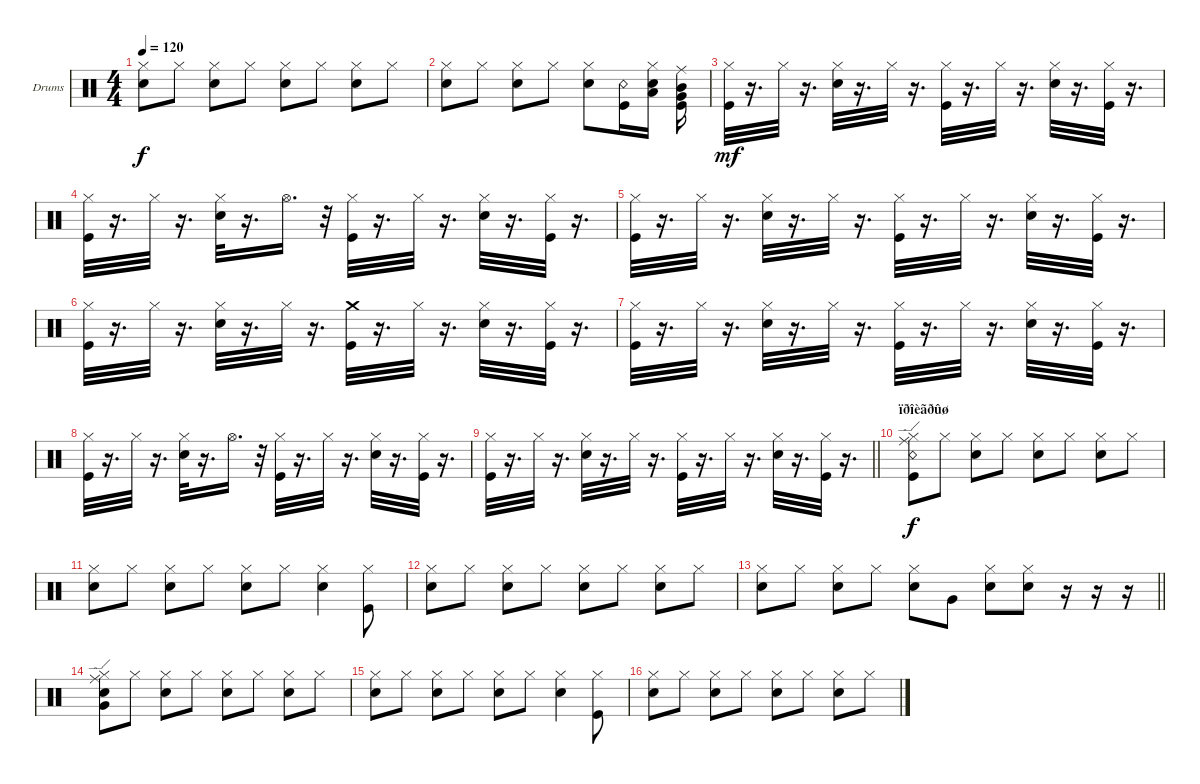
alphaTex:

\bracketExtendMode groupsimilarinstruments
\firstSystemTrackNameOrientation horizontal
\otherSystemsTrackNameOrientation horizontal
\track ("Drumkit" "Drums") {instrument percussion}
\staff {score}
\articulation defaults
\ts (4 4)
\tempo 120
\clef neutral
\ks c
("Hi-Hat (closed)" "Snare (hit) 2").8{dy f} "Hi-Hat (closed)".8 ("Hi-Hat (closed)" "Snare (hit) 2").8 "Hi-Hat (closed)".8 ("Hi-Hat (closed)" "Snare (hit) 2").8 "Hi-Hat (closed)".8 ("Hi-Hat (closed)" "Snare (hit) 2").8 "Hi-Hat (closed)".8 |
("Hi-Hat (closed)" "Snare (hit) 2").8 "Hi-Hat (closed)".8 ("Hi-Hat (closed)" "Snare (hit) 2").8 "Hi-Hat (closed)".8 ("Hi-Hat (closed)" "Snare (hit) 2").8 ("Snare (rim shot)" "Kick (hit)").16 ("Hi-Hat (closed)" "Snare (hit) 2" "Low Tom (hit)").16 ("Very Low Tom (hit)" "Kick (hit)" "Mid Tom (hit)" "Ride (middle)").16 |
("Hi-Hat (closed)" "Kick (hit)").32{dy mf} r.16{d} "Hi-Hat (closed)".32 r.16{d} ("Hi-Hat (closed)" "Snare (hit) 2").32 r.16{d} "Hi-Hat (closed)".32 r.16{d} ("Hi-Hat (closed)" "Kick (hit)").32 r.16{d} "Hi-Hat (closed)".32 r.16{d} ("Hi-Hat (closed)" "Snare (hit) 2").32 r.16{d} ("Hi-Hat (closed)" "Kick (hit)").32 r.16{d} |
("Hi-Hat (closed)" "Kick (hit)").32 r.16{d} "Hi-Hat (closed)".32 r.16{d} ("Hi-Hat (closed)" "Snare (hit) 2").32 r.16{d} "Hi-Hat (open)".16{d} r.32 ("Hi-Hat (closed)" "Kick (hit)").32 r.16{d} "Hi-Hat (closed)".32 r.16{d} ("Hi-Hat (closed)" "Snare (hit) 2").32 r.16{d} ("Hi-Hat (closed)" "Kick (hit)").32 r.16{d} |
("Hi-Hat (closed)" "Kick (hit)").32 r.16{d} "Hi-Hat (closed)".32 r.16{d} ("Hi-Hat (closed)" "Snare (hit) 2").32 r.16{d} "Hi-Hat (closed)".32 r.16{d} ("Hi-Hat (closed)" "Kick (hit)").32 r.16{d} "Hi-Hat (closed)".32 r.16{d} ("Hi-Hat (closed)" "Snare (hit) 2").32 r.16{d} ("Hi-Hat (closed)" "Kick (hit)").32 r.16{d} |
("Hi-Hat (closed)" "Kick (hit)").32 r.16{d} "Hi-Hat (closed)".32 r.16{d} ("Hi-Hat (closed)" "Snare (hit) 2").32 r.16{d} "Hi-Hat (closed)".32 r.16{d} ("Crash medium (hit)" "Kick (hit)").32 r.16{d} "Hi-Hat (closed)".32 r.16{d} ("Hi-Hat (closed)" "Snare (hit) 2").32 r.16{d} ("Hi-Hat (closed)" "Kick (hit)").32 r.16{d} |
("Hi-Hat (closed)" "Kick (hit)").32 r.16{d} "Hi-Hat (closed)".32 r.16{d} ("Hi-Hat (closed)" "Snare (hit) 2").32 r.16{d} "Hi-Hat (closed)".32 r.16{d} ("Hi-Hat (closed)" "Kick (hit)").32 r.16{d} "Hi-Hat (closed)".32 r.16{d} ("Hi-Hat (closed)" "Snare (hit) 2").32 r.16{d} ("Hi-Hat (closed)" "Kick (hit)").32 r.16{d} |
("Hi-Hat (closed)" "Kick (hit)").32 r.16{d} "Hi-Hat (closed)".32 r.16{d} ("Hi-Hat (closed)" "Snare (hit) 2").32 r.16{d} "Hi-Hat (open)".16{d} r.32 ("Hi-Hat (closed)" "Kick (hit)").32 r.16{d} "Hi-Hat (closed)".32 r.16{d} ("Hi-Hat (closed)" "Snare (hit) 2").32 r.16{d} ("Hi-Hat (closed)" "Kick (hit)").32 r.16{d} |
\barLineRight lightlight
("Hi-Hat (closed)" "Kick (hit)").32 r.16{d} "Hi-Hat (closed)".32 r.16{d} ("Hi-Hat (closed)" "Snare (hit) 2").32 r.16{d} "Hi-Hat (closed)".32 r.16{d} ("Hi-Hat (closed)" "Kick (hit)").32 r.16{d} "Hi-Hat (closed)".32 r.16{d} ("Hi-Hat (closed)" "Snare (hit) 2").32 r.16{d} ("Hi-Hat (closed)" "Kick (hit)").32 r.16{d} |
\section ("" "ïðîèãðûø")
("Hi-Hat (closed)" "Ride (edge)" "Snare (rim shot)" "Kick (hit)").8{dy f} "Hi-Hat (closed)".8 ("Snare (hit) 2" "Hi-Hat (closed)").8 "Hi-Hat (closed)".8 ("Hi-Hat (closed)" "Snare (hit) 2").8 "Hi-Hat (closed)".8 ("Hi-Hat (closed)" "Snare (hit) 2").8 "Hi-Hat (closed)".8 |
("Hi-Hat (closed)" "Snare (hit) 2").8 "Hi-Hat (closed)".8 ("Hi-Hat (closed)" "Snare (hit) 2").8 "Hi-Hat (closed)".8 ("Hi-Hat (closed)" "Snare (hit) 2").8 "Hi-Hat (closed)".8 ("Hi-Hat (closed)" "Snare (hit) 2").4 ("Hi-Hat (closed)" "Kick (hit)").8 |
("Hi-Hat (closed)" "Snare (hit) 2").8 "Hi-Hat (closed)".8 ("Hi-Hat (closed)" "Snare (hit) 2").8 "Hi-Hat (closed)".8 ("Hi-Hat (closed)" "Snare (hit) 2").8 "Hi-Hat (closed)".8 ("Hi-Hat (closed)" "Snare (hit) 2").8 "Hi-Hat (closed)".8 |
\barLineRight lightlight
("Hi-Hat (closed)" "Snare (hit) 2").8 "Hi-Hat (closed)".8 ("Hi-Hat (closed)" "Snare (hit) 2").8 "Hi-Hat (closed)".8 ("Hi-Hat (closed)" "Snare (hit) 2").8 "Very Low Tom (hit)".8 ("Hi-Hat (closed)" "Snare (hit) 2").8 ("Snare (hit) 2" "Hi-Hat (closed)").8 r.16 r.16 r.16 |
("Snare (hit) 2" "Ride (edge)" "Hi-Hat (closed)" "Very Low Tom (hit)").8 "Hi-Hat (closed)".8 ("Hi-Hat (closed)" "Snare (hit) 2").8 "Hi-Hat (closed)".8 ("Hi-Hat (closed)" "Snare (hit) 2").8 "Hi-Hat (closed)".8 ("Hi-Hat (closed)" "Snare (hit) 2").8 "Hi-Hat (closed)".8 |
("Hi-Hat (closed)" "Snare (hit) 2").8 "Hi-Hat (closed)".8 ("Hi-Hat (closed)" "Snare (hit) 2").8 "Hi-Hat (closed)".8 ("Hi-Hat (closed)" "Snare (hit) 2").8 "Hi-Hat (closed)".8 ("Hi-Hat (closed)" "Snare (hit) 2").4 ("Hi-Hat (closed)" "Kick (hit)").8 |
("Hi-Hat (closed)" "Snare (hit) 2").8 "Hi-Hat (closed)".8 ("Hi-Hat (closed)" "Snare (hit) 2").8 "Hi-Hat (closed)".8 ("Hi-Hat (closed)" "Snare (hit) 2").8 "Hi-Hat (closed)".8 ("Hi-Hat (closed)" "Snare (hit) 2").8 "Hi-Hat (closed)".8
